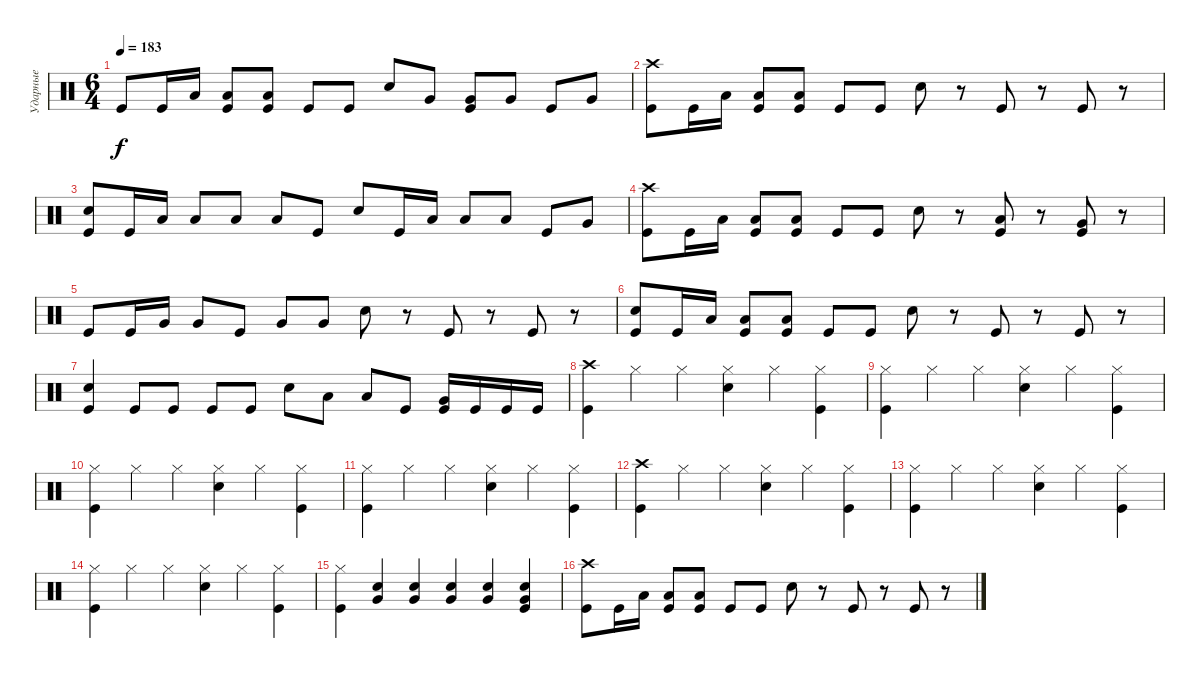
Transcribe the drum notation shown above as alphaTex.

\track ("Ударные" "Ударные") {instrument percussion}
\staff {score}
\articulation defaults
\ts (6 4)
\tempo 183
\clef neutral
\ks c "Kick (hit)".8{dy f} "Kick (hit)".16 "Low Tom (hit)".16
("Low Tom (hit)" "Kick (hit)").8 ("Low Tom (hit)" "Kick (hit)").8 "Kick (hit)".8 "Kick (hit)".8 "Electric Snare (hit)".8 "Very Low Tom (hit)".8 ("Very Low Tom (hit)" "Kick (hit)").8 "Very Low Tom (hit)".8 "Kick (hit)".8 "Very Low Tom (hit)".8 |
("Crash high (hit)" "Kick (hit)").8 "Kick (hit)".16 "Low Tom (hit)".16 ("Low Tom (hit)" "Kick (hit)").8 ("Low Tom (hit)" "Kick (hit)").8 "Kick (hit)".8 "Kick (hit)".8 "Electric Snare (hit)".8 r.8 "Kick (hit)".8 r.8 "Kick (hit)".8 r.8 |
("Electric Snare (hit)" "Kick (hit)").8 "Kick (hit)".16 "Low Tom (hit)".16 "Low Tom (hit)".8 "Low Tom (hit)".8 "Low Tom (hit)".8 "Kick (hit)".8 "Electric Snare (hit)".8 "Kick (hit)".16 "Low Tom (hit)".16 "Low Tom (hit)".8 "Low Tom (hit)".8 "Kick (hit)".8 "Very Low Tom (hit)".8 |
("Crash high (hit)" "Kick (hit)").8 "Kick (hit)".16 "Low Tom (hit)".16 ("Low Tom (hit)" "Kick (hit)").8 ("Low Tom (hit)" "Kick (hit)").8 "Kick (hit)".8 "Kick (hit)".8 "Electric Snare (hit)".8 r.8 ("Low Tom (hit)" "Kick (hit)").8 r.8 ("Very Low Tom (hit)" "Kick (hit)").8 r.8 |
"Kick (hit)".8 "Kick (hit)".16 "Very Low Tom (hit)".16 "Very Low Tom (hit)".8 "Kick (hit)".8 "Very Low Tom (hit)".8 "Very Low Tom (hit)".8 "Electric Snare (hit)".8 r.8 "Kick (hit)".8 r.8 "Kick (hit)".8 r.8 |
("Electric Snare (hit)" "Kick (hit)").8 "Kick (hit)".16 "Low Tom (hit)".16 ("Low Tom (hit)" "Kick (hit)").8 ("Low Tom (hit)" "Kick (hit)").8 "Kick (hit)".8 "Kick (hit)".8 "Electric Snare (hit)".8 r.8 "Kick (hit)".8 r.8 "Kick (hit)".8 r.8 |
("Electric Snare (hit)" "Kick (hit)").4 "Kick (hit)".8 "Kick (hit)".8 "Kick (hit)".8 "Kick (hit)".8 "Electric Snare (hit)".8 "Low Tom (hit)".8 "Low Tom (hit)".8 "Kick (hit)".8 ("Very Low Tom (hit)" "Kick (hit)").16 "Kick (hit)".16 "Kick (hit)".16 "Kick (hit)".16 |
("Crash high (hit)" "Kick (hit)").4 "Hi-Hat (closed)".4 "Hi-Hat (closed)".4 ("Hi-Hat (closed)" "Electric Snare (hit)").4 "Hi-Hat (closed)".4 ("Hi-Hat (closed)" "Kick (hit)").4 |
("Hi-Hat (closed)" "Kick (hit)").4 "Hi-Hat (closed)".4 "Hi-Hat (closed)".4 ("Hi-Hat (closed)" "Electric Snare (hit)").4 "Hi-Hat (closed)".4 ("Hi-Hat (closed)" "Kick (hit)").4 |
("Hi-Hat (closed)" "Kick (hit)").4 "Hi-Hat (closed)".4 "Hi-Hat (closed)".4 ("Hi-Hat (closed)" "Electric Snare (hit)").4 "Hi-Hat (closed)".4 ("Hi-Hat (closed)" "Kick (hit)").4 |
("Hi-Hat (closed)" "Kick (hit)").4 "Hi-Hat (closed)".4 "Hi-Hat (closed)".4 ("Hi-Hat (closed)" "Electric Snare (hit)").4 "Hi-Hat (closed)".4 ("Hi-Hat (closed)" "Kick (hit)").4 |
("Crash high (hit)" "Kick (hit)").4 "Hi-Hat (closed)".4 "Hi-Hat (closed)".4 ("Hi-Hat (closed)" "Electric Snare (hit)").4 "Hi-Hat (closed)".4 ("Hi-Hat (closed)" "Kick (hit)").4 |
("Hi-Hat (closed)" "Kick (hit)").4 "Hi-Hat (closed)".4 "Hi-Hat (closed)".4 ("Hi-Hat (closed)" "Electric Snare (hit)").4 "Hi-Hat (closed)".4 ("Hi-Hat (closed)" "Kick (hit)").4 |
("Hi-Hat (closed)" "Kick (hit)").4 "Hi-Hat (closed)".4 "Hi-Hat (closed)".4 ("Hi-Hat (closed)" "Electric Snare (hit)").4 "Hi-Hat (closed)".4 ("Hi-Hat (closed)" "Kick (hit)").4 |
("Hi-Hat (closed)" "Kick (hit)").4 ("Very Low Tom (hit)" "Electric Snare (hit)").4 ("Very Low Tom (hit)" "Electric Snare (hit)").4 ("Very Low Tom (hit)" "Electric Snare (hit)").4 ("Very Low Tom (hit)" "Electric Snare (hit)").4 ("Very Low Tom (hit)" "Electric Snare (hit)" "Kick (hit)").4 |
("Crash high (hit)" "Kick (hit)").8 "Kick (hit)".16 "Low Tom (hit)".16 ("Low Tom (hit)" "Kick (hit)").8 ("Low Tom (hit)" "Kick (hit)").8 "Kick (hit)".8 "Kick (hit)".8 "Electric Snare (hit)".8 r.8 "Kick (hit)".8 r.8 "Kick (hit)".8 r.8
